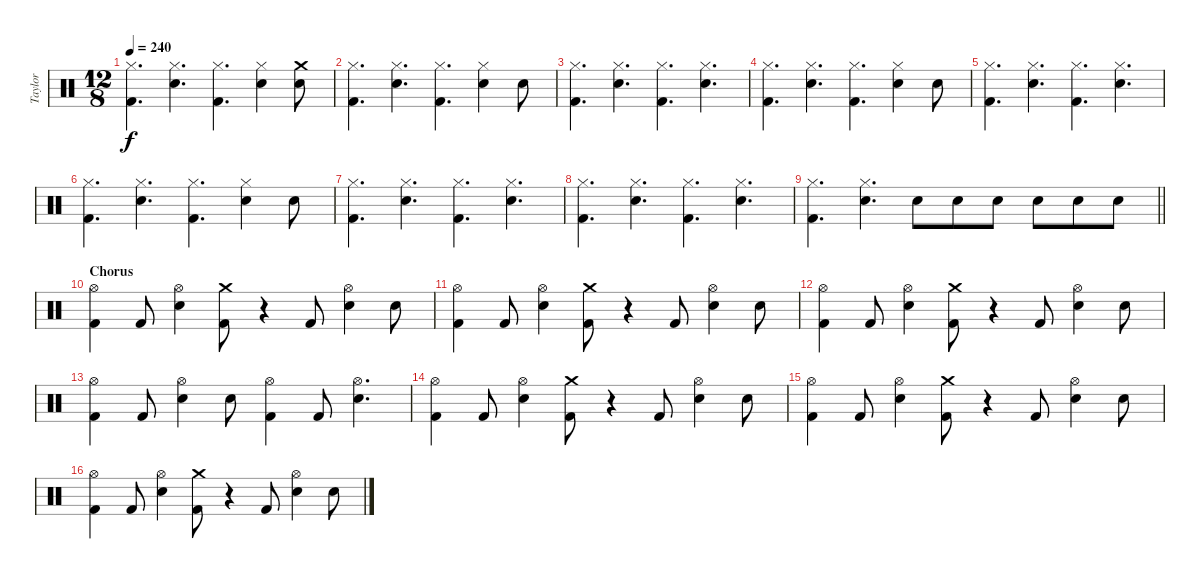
\track ("Taylor" "Taylor") {instrument percussion}
\staff {score}
\articulation defaults
\ts (12 8)
\tempo 240
\clef neutral
\ks c
("Hi-Hat (closed)" "Kick (hit) 2").4{d dy f} ("Hi-Hat (closed)" "Snare (hit) 2").4{d} ("Hi-Hat (closed)" "Kick (hit) 2").4{d} ("Hi-Hat (closed)" "Snare (hit) 2").4 ("Crash medium (hit)" "Snare (hit) 2").8 |
("Hi-Hat (closed)" "Kick (hit) 2").4{d} ("Hi-Hat (closed)" "Snare (hit) 2").4{d} ("Hi-Hat (closed)" "Kick (hit) 2").4{d} ("Hi-Hat (closed)" "Snare (hit) 2").4 "Snare (hit) 2".8 |
("Hi-Hat (closed)" "Kick (hit) 2").4{d} ("Hi-Hat (closed)" "Snare (hit) 2").4{d} ("Hi-Hat (closed)" "Kick (hit) 2").4{d} ("Hi-Hat (closed)" "Snare (hit) 2").4{d} |
("Hi-Hat (closed)" "Kick (hit) 2").4{d} ("Hi-Hat (closed)" "Snare (hit) 2").4{d} ("Hi-Hat (closed)" "Kick (hit) 2").4{d} ("Hi-Hat (closed)" "Snare (hit) 2").4 "Snare (hit) 2".8 |
("Hi-Hat (closed)" "Kick (hit) 2").4{d} ("Hi-Hat (closed)" "Snare (hit) 2").4{d} ("Hi-Hat (closed)" "Kick (hit) 2").4{d} ("Hi-Hat (closed)" "Snare (hit) 2").4{d} |
("Hi-Hat (closed)" "Kick (hit) 2").4{d} ("Hi-Hat (closed)" "Snare (hit) 2").4{d} ("Hi-Hat (closed)" "Kick (hit) 2").4{d} ("Hi-Hat (closed)" "Snare (hit) 2").4 "Snare (hit) 2".8 |
("Hi-Hat (closed)" "Kick (hit) 2").4{d} ("Hi-Hat (closed)" "Snare (hit) 2").4{d} ("Hi-Hat (closed)" "Kick (hit) 2").4{d} ("Hi-Hat (closed)" "Snare (hit) 2").4{d} |
("Hi-Hat (closed)" "Kick (hit) 2").4{d} ("Hi-Hat (closed)" "Snare (hit) 2").4{d} ("Hi-Hat (closed)" "Kick (hit) 2").4{d} ("Hi-Hat (closed)" "Snare (hit) 2").4{d} |
\barLineRight lightlight
("Hi-Hat (closed)" "Kick (hit) 2").4{d} ("Hi-Hat (closed)" "Snare (hit) 2").4{d} "Snare (hit) 2".8 "Snare (hit) 2".8 "Snare (hit) 2".8 "Snare (hit) 2".8 "Snare (hit) 2".8 "Snare (hit) 2".8 |
\section ("" "Chorus")
("Hi-Hat (open)" "Kick (hit) 2").4 "Kick (hit) 2".8 ("Hi-Hat (open)" "Snare (hit) 2").4 ("Crash medium (hit)" "Kick (hit) 2").8 r.4 "Kick (hit) 2".8 ("Hi-Hat (open)" "Snare (hit) 2").4 "Snare (hit) 2".8 |
("Hi-Hat (open)" "Kick (hit) 2").4 "Kick (hit) 2".8 ("Hi-Hat (open)" "Snare (hit) 2").4 ("Crash medium (hit)" "Kick (hit) 2").8 r.4 "Kick (hit) 2".8 ("Hi-Hat (open)" "Snare (hit) 2").4 "Snare (hit) 2".8 |
("Hi-Hat (open)" "Kick (hit) 2").4 "Kick (hit) 2".8 ("Hi-Hat (open)" "Snare (hit) 2").4 ("Crash medium (hit)" "Kick (hit) 2").8 r.4 "Kick (hit) 2".8 ("Hi-Hat (open)" "Snare (hit) 2").4 "Snare (hit) 2".8 |
("Hi-Hat (open)" "Kick (hit) 2").4 "Kick (hit) 2".8 ("Hi-Hat (open)" "Snare (hit) 2").4 "Snare (hit) 2".8 ("Hi-Hat (open)" "Kick (hit) 2").4 "Kick (hit) 2".8 ("Hi-Hat (open)" "Snare (hit) 2").4{d} |
("Hi-Hat (open)" "Kick (hit) 2").4 "Kick (hit) 2".8 ("Hi-Hat (open)" "Snare (hit) 2").4 ("Crash medium (hit)" "Kick (hit) 2").8 r.4 "Kick (hit) 2".8 ("Hi-Hat (open)" "Snare (hit) 2").4 "Snare (hit) 2".8 |
("Hi-Hat (open)" "Kick (hit) 2").4 "Kick (hit) 2".8 ("Hi-Hat (open)" "Snare (hit) 2").4 ("Crash medium (hit)" "Kick (hit) 2").8 r.4 "Kick (hit) 2".8 ("Hi-Hat (open)" "Snare (hit) 2").4 "Snare (hit) 2".8 |
("Hi-Hat (open)" "Kick (hit) 2").4 "Kick (hit) 2".8 ("Hi-Hat (open)" "Snare (hit) 2").4 ("Crash medium (hit)" "Kick (hit) 2").8 r.4 "Kick (hit) 2".8 ("Hi-Hat (open)" "Snare (hit) 2").4 "Snare (hit) 2".8
